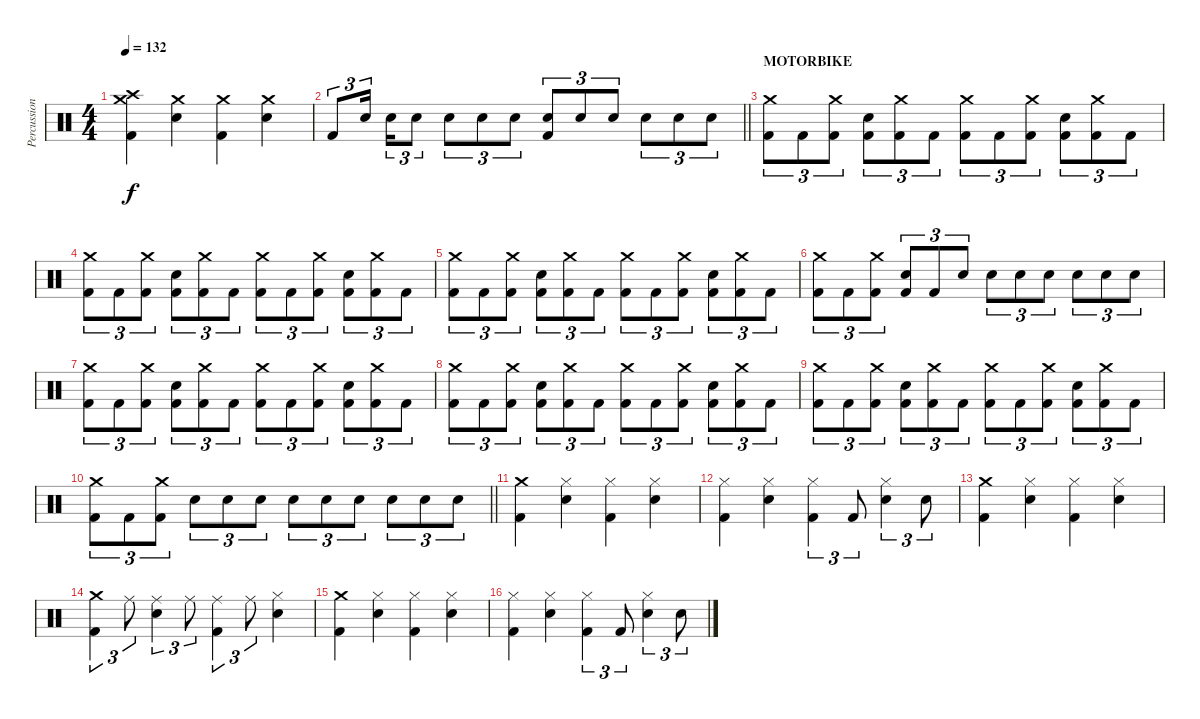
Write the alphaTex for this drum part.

\track ("Percussion" "Percussion") {instrument percussion}
\staff {score}
\articulation defaults
\ts (4 4)
\tempo 132
\clef neutral
\ks c
("Crash medium (hit)" "Crash high (hit)" "Kick (hit) 2").4{dy f} ("Crash medium (hit)" "Snare (hit) 2").4 ("Crash medium (hit)" "Kick (hit) 2").4 ("Crash medium (hit)" "Snare (hit) 2").4 |
\barLineRight lightlight "Kick (hit) 2".8{tu (3 2)} "Snare (hit) 2".16{tu (3 2) beam splitsecondary} "Snare (hit) 2".16{tu (3 2)} "Snare (hit) 2".8{tu (3 2)} "Snare (hit) 2".8{tu (3 2)} "Snare (hit) 2".8{tu (3 2)} "Snare (hit) 2".8{tu (3 2)}
("Snare (hit) 2" "Kick (hit) 2").8{tu (3 2)} "Snare (hit) 2".8{tu (3 2)} "Snare (hit) 2".8{tu (3 2)} "Snare (hit) 2".8{tu (3 2)} "Snare (hit) 2".8{tu (3 2)} "Snare (hit) 2".8{tu (3 2)} |
\section ("" "MOTORBIKE")
("Crash medium (hit)" "Kick (hit) 2").8{tu (3 2)} "Kick (hit) 2".8{tu (3 2)} ("Crash medium (hit)" "Kick (hit) 2").8{tu (3 2)} ("Snare (hit) 2" "Kick (hit) 2").8{tu (3 2)} ("Crash medium (hit)" "Kick (hit) 2").8{tu (3 2)} "Kick (hit) 2".8{tu (3 2)} ("Crash medium (hit)" "Kick (hit) 2").8{tu (3 2)} "Kick (hit) 2".8{tu (3 2)} ("Crash medium (hit)" "Kick (hit) 2").8{tu (3 2)} ("Snare (hit) 2" "Kick (hit) 2").8{tu (3 2)} ("Crash medium (hit)" "Kick (hit) 2").8{tu (3 2)} "Kick (hit) 2".8{tu (3 2)} |
("Crash medium (hit)" "Kick (hit) 2").8{tu (3 2)} "Kick (hit) 2".8{tu (3 2)} ("Crash medium (hit)" "Kick (hit) 2").8{tu (3 2)} ("Snare (hit) 2" "Kick (hit) 2").8{tu (3 2)} ("Crash medium (hit)" "Kick (hit) 2").8{tu (3 2)} "Kick (hit) 2".8{tu (3 2)} ("Crash medium (hit)" "Kick (hit) 2").8{tu (3 2)} "Kick (hit) 2".8{tu (3 2)} ("Crash medium (hit)" "Kick (hit) 2").8{tu (3 2)} ("Snare (hit) 2" "Kick (hit) 2").8{tu (3 2)} ("Crash medium (hit)" "Kick (hit) 2").8{tu (3 2)} "Kick (hit) 2".8{tu (3 2)} |
("Crash medium (hit)" "Kick (hit) 2").8{tu (3 2)} "Kick (hit) 2".8{tu (3 2)} ("Crash medium (hit)" "Kick (hit) 2").8{tu (3 2)} ("Snare (hit) 2" "Kick (hit) 2").8{tu (3 2)} ("Crash medium (hit)" "Kick (hit) 2").8{tu (3 2)} "Kick (hit) 2".8{tu (3 2)} ("Crash medium (hit)" "Kick (hit) 2").8{tu (3 2)} "Kick (hit) 2".8{tu (3 2)} ("Crash medium (hit)" "Kick (hit) 2").8{tu (3 2)} ("Snare (hit) 2" "Kick (hit) 2").8{tu (3 2)} ("Crash medium (hit)" "Kick (hit) 2").8{tu (3 2)} "Kick (hit) 2".8{tu (3 2)} |
("Crash medium (hit)" "Kick (hit) 2").8{tu (3 2)} "Kick (hit) 2".8{tu (3 2)} ("Crash medium (hit)" "Kick (hit) 2").8{tu (3 2)} ("Snare (hit) 2" "Kick (hit) 2").8{tu (3 2)} "Kick (hit) 2".8{tu (3 2)} "Snare (hit) 2".8{tu (3 2)} "Snare (hit) 2".8{tu (3 2)} "Snare (hit) 2".8{tu (3 2)} "Snare (hit) 2".8{tu (3 2)} "Snare (hit) 2".8{tu (3 2)} "Snare (hit) 2".8{tu (3 2)} "Snare (hit) 2".8{tu (3 2)} |
("Crash medium (hit)" "Kick (hit) 2").8{tu (3 2)} "Kick (hit) 2".8{tu (3 2)} ("Crash medium (hit)" "Kick (hit) 2").8{tu (3 2)} ("Snare (hit) 2" "Kick (hit) 2").8{tu (3 2)} ("Crash medium (hit)" "Kick (hit) 2").8{tu (3 2)} "Kick (hit) 2".8{tu (3 2)} ("Crash medium (hit)" "Kick (hit) 2").8{tu (3 2)} "Kick (hit) 2".8{tu (3 2)} ("Crash medium (hit)" "Kick (hit) 2").8{tu (3 2)} ("Snare (hit) 2" "Kick (hit) 2").8{tu (3 2)} ("Crash medium (hit)" "Kick (hit) 2").8{tu (3 2)} "Kick (hit) 2".8{tu (3 2)} |
("Crash medium (hit)" "Kick (hit) 2").8{tu (3 2)} "Kick (hit) 2".8{tu (3 2)} ("Crash medium (hit)" "Kick (hit) 2").8{tu (3 2)} ("Snare (hit) 2" "Kick (hit) 2").8{tu (3 2)} ("Crash medium (hit)" "Kick (hit) 2").8{tu (3 2)} "Kick (hit) 2".8{tu (3 2)} ("Crash medium (hit)" "Kick (hit) 2").8{tu (3 2)} "Kick (hit) 2".8{tu (3 2)} ("Crash medium (hit)" "Kick (hit) 2").8{tu (3 2)} ("Snare (hit) 2" "Kick (hit) 2").8{tu (3 2)} ("Crash medium (hit)" "Kick (hit) 2").8{tu (3 2)} "Kick (hit) 2".8{tu (3 2)} |
("Crash medium (hit)" "Kick (hit) 2").8{tu (3 2)} "Kick (hit) 2".8{tu (3 2)} ("Crash medium (hit)" "Kick (hit) 2").8{tu (3 2)} ("Snare (hit) 2" "Kick (hit) 2").8{tu (3 2)} ("Crash medium (hit)" "Kick (hit) 2").8{tu (3 2)} "Kick (hit) 2".8{tu (3 2)} ("Crash medium (hit)" "Kick (hit) 2").8{tu (3 2)} "Kick (hit) 2".8{tu (3 2)} ("Crash medium (hit)" "Kick (hit) 2").8{tu (3 2)} ("Snare (hit) 2" "Kick (hit) 2").8{tu (3 2)} ("Crash medium (hit)" "Kick (hit) 2").8{tu (3 2)} "Kick (hit) 2".8{tu (3 2)} |
\barLineRight lightlight
("Crash medium (hit)" "Kick (hit) 2").8{tu (3 2)} "Kick (hit) 2".8{tu (3 2)} ("Crash medium (hit)" "Kick (hit) 2").8{tu (3 2)} "Snare (hit) 2".8{tu (3 2)} "Snare (hit) 2".8{tu (3 2)} "Snare (hit) 2".8{tu (3 2)} "Snare (hit) 2".8{tu (3 2)} "Snare (hit) 2".8{tu (3 2)} "Snare (hit) 2".8{tu (3 2)} "Snare (hit) 2".8{tu (3 2)} "Snare (hit) 2".8{tu (3 2)} "Snare (hit) 2".8{tu (3 2)} |
("Crash medium (hit)" "Kick (hit) 2").4 ("Hi-Hat (closed)" "Snare (hit) 2").4 ("Hi-Hat (closed)" "Kick (hit) 2").4 ("Hi-Hat (closed)" "Snare (hit) 2").4 |
("Hi-Hat (closed)" "Kick (hit) 2").4 ("Hi-Hat (closed)" "Snare (hit) 2").4 ("Hi-Hat (closed)" "Kick (hit) 2").4{tu (3 2)} "Kick (hit) 2".8{tu (3 2)} ("Hi-Hat (closed)" "Snare (hit) 2").4{tu (3 2)} "Snare (hit) 2".8{tu (3 2)} |
("Crash medium (hit)" "Kick (hit) 2").4 ("Hi-Hat (closed)" "Snare (hit) 2").4 ("Hi-Hat (closed)" "Kick (hit) 2").4 ("Hi-Hat (closed)" "Snare (hit) 2").4 |
("Crash medium (hit)" "Kick (hit) 2").4{tu (3 2)} "Ride (middle)".8{tu (3 2)} ("Ride (middle)" "Snare (hit) 2").4{tu (3 2)} "Ride (middle)".8{tu (3 2)} ("Ride (middle)" "Kick (hit) 2").4{tu (3 2)} "Ride (middle)".8{tu (3 2)} ("Hi-Hat (closed)" "Snare (hit) 2").4 |
("Crash medium (hit)" "Kick (hit) 2").4 ("Hi-Hat (closed)" "Snare (hit) 2").4 ("Hi-Hat (closed)" "Kick (hit) 2").4 ("Hi-Hat (closed)" "Snare (hit) 2").4 |
("Hi-Hat (closed)" "Kick (hit) 2").4 ("Hi-Hat (closed)" "Snare (hit) 2").4 ("Hi-Hat (closed)" "Kick (hit) 2").4{tu (3 2)} "Kick (hit) 2".8{tu (3 2)} ("Hi-Hat (closed)" "Snare (hit) 2").4{tu (3 2)} "Snare (hit) 2".8{tu (3 2)}
